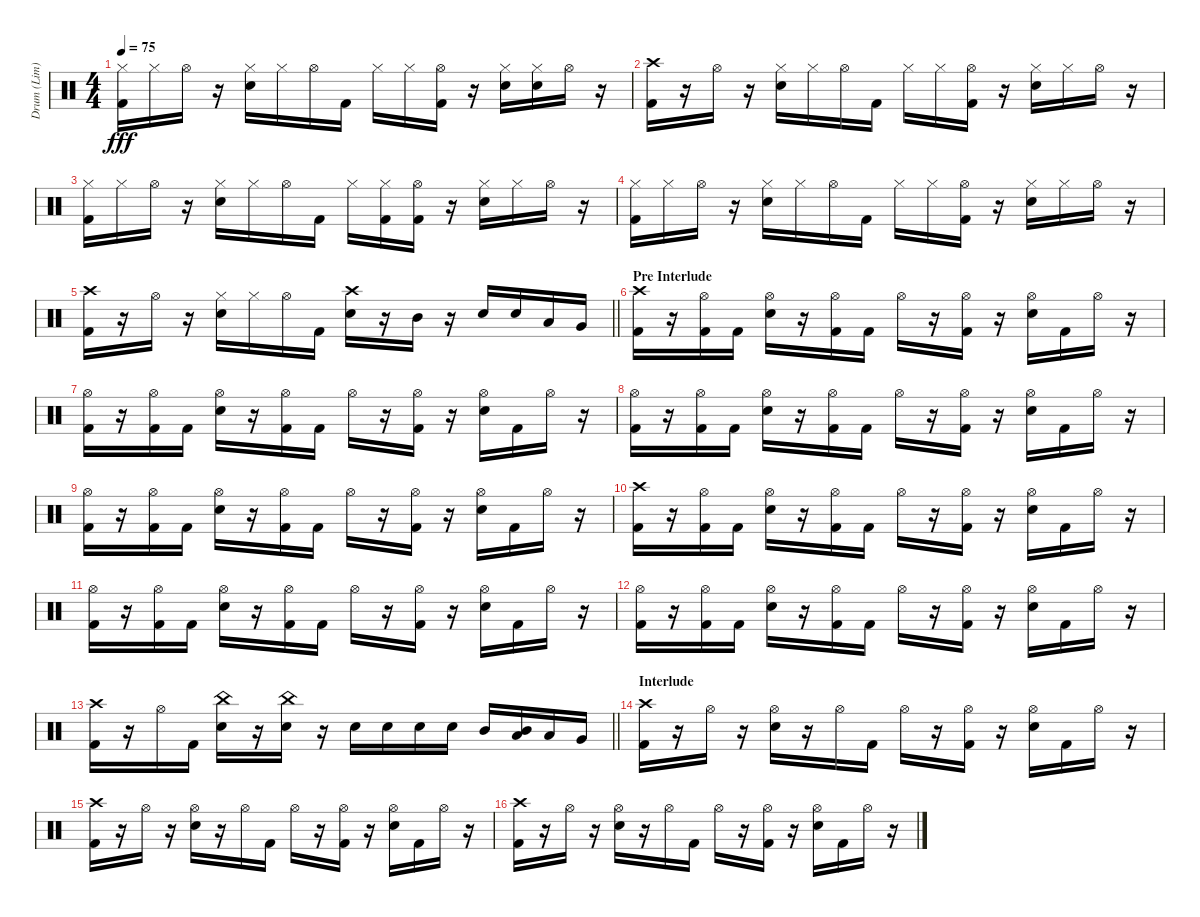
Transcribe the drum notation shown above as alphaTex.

\track ("Drum (Lim)" "Drum (Lim)") {instrument percussion}
\staff {score}
\articulation defaults
\ts (4 4)
\tempo 75
\clef neutral
\ks c
("Hi-Hat (closed)" "Kick (hit) 2").16{dy fff} "Hi-Hat (closed)".16 "Hi-Hat (open)".16 r.16 ("Hi-Hat (closed)" "Electric Snare (hit)").16 "Hi-Hat (closed)".16 "Hi-Hat (open)".16 "Kick (hit) 2".16 "Hi-Hat (closed)".16 "Hi-Hat (closed)".16 ("Hi-Hat (open)" "Kick (hit) 2").16 r.16 ("Electric Snare (hit)" "Hi-Hat (closed)").16 ("Electric Snare (hit)" "Hi-Hat (closed)").16 "Hi-Hat (open)".16 r.16 |
("Crash high (hit)" "Kick (hit) 2").16 r.16 "Hi-Hat (open)".16 r.16 ("Hi-Hat (closed)" "Electric Snare (hit)").16 "Hi-Hat (closed)".16 "Hi-Hat (open)".16 "Kick (hit) 2".16 "Hi-Hat (closed)".16 "Hi-Hat (closed)".16 ("Kick (hit) 2" "Hi-Hat (open)").16 r.16 ("Hi-Hat (closed)" "Electric Snare (hit)").16 "Hi-Hat (closed)".16 "Hi-Hat (open)".16 r.16 |
("Kick (hit) 2" "Hi-Hat (closed)").16 "Hi-Hat (closed)".16 "Hi-Hat (open)".16 r.16 ("Electric Snare (hit)" "Hi-Hat (closed)").16 "Hi-Hat (closed)".16 "Hi-Hat (open)".16 "Kick (hit) 2".16 "Hi-Hat (closed)".16 ("Kick (hit) 2" "Hi-Hat (closed)").16 ("Hi-Hat (open)" "Kick (hit) 2").16 r.16 ("Electric Snare (hit)" "Hi-Hat (closed)").16 "Hi-Hat (closed)".16 "Hi-Hat (open)".16 r.16 |
("Kick (hit) 2" "Hi-Hat (closed)").16 "Hi-Hat (closed)".16 "Hi-Hat (open)".16 r.16 ("Electric Snare (hit)" "Hi-Hat (closed)").16 "Hi-Hat (closed)".16 "Hi-Hat (open)".16 "Kick (hit) 2".16 "Hi-Hat (closed)".16 "Hi-Hat (closed)".16 ("Kick (hit) 2" "Hi-Hat (open)").16 r.16 ("Electric Snare (hit)" "Hi-Hat (closed)").16 "Hi-Hat (closed)".16 "Hi-Hat (open)".16 r.16 |
\barLineRight lightlight
("Kick (hit) 2" "Crash high (hit)").16 r.16 "Hi-Hat (open)".16 r.16 ("Electric Snare (hit)" "Hi-Hat (closed)").16 "Hi-Hat (closed)".16 "Hi-Hat (open)".16 "Kick (hit) 2".16 ("Crash high (hit)" "Electric Snare (hit)").16 r.16 "Mid Tom (hit)".16 r.16 "Electric Snare (hit)".16 "Electric Snare (hit)".16 "Low Tom (hit)".16 "Very Low Tom (hit)".16 |
\section ("" "Pre Interlude")
("Crash high (hit)" "Kick (hit) 2").16 r.16 ("Kick (hit) 2" "Hi-Hat (open)").16 "Kick (hit) 2".16 ("Hi-Hat (open)" "Electric Snare (hit)").16 r.16 ("Hi-Hat (open)" "Kick (hit) 2").16 "Kick (hit) 2".16 "Hi-Hat (open)".16 r.16 ("Kick (hit) 2" "Hi-Hat (open)").16 r.16 ("Electric Snare (hit)" "Hi-Hat (open)").16 "Kick (hit) 2".16 "Hi-Hat (open)".16 r.16 |
("Kick (hit) 2" "Hi-Hat (open)").16 r.16 ("Kick (hit) 2" "Hi-Hat (open)").16 "Kick (hit) 2".16 ("Electric Snare (hit)" "Hi-Hat (open)").16 r.16 ("Kick (hit) 2" "Hi-Hat (open)").16 "Kick (hit) 2".16 "Hi-Hat (open)".16 r.16 ("Hi-Hat (open)" "Kick (hit) 2").16 r.16 ("Electric Snare (hit)" "Hi-Hat (open)").16 "Kick (hit) 2".16 "Hi-Hat (open)".16 r.16 |
("Kick (hit) 2" "Hi-Hat (open)").16 r.16 ("Kick (hit) 2" "Hi-Hat (open)").16 "Kick (hit) 2".16 ("Electric Snare (hit)" "Hi-Hat (open)").16 r.16 ("Hi-Hat (open)" "Kick (hit) 2").16 "Kick (hit) 2".16 "Hi-Hat (open)".16 r.16 ("Hi-Hat (open)" "Kick (hit) 2").16 r.16 ("Hi-Hat (open)" "Electric Snare (hit)").16 "Kick (hit) 2".16 "Hi-Hat (open)".16 r.16 |
("Kick (hit) 2" "Hi-Hat (open)").16 r.16 ("Kick (hit) 2" "Hi-Hat (open)").16 "Kick (hit) 2".16 ("Electric Snare (hit)" "Hi-Hat (open)").16 r.16 ("Hi-Hat (open)" "Kick (hit) 2").16 "Kick (hit) 2".16 "Hi-Hat (open)".16 r.16 ("Hi-Hat (open)" "Kick (hit) 2").16 r.16 ("Hi-Hat (open)" "Electric Snare (hit)").16 "Kick (hit) 2".16 "Hi-Hat (open)".16 r.16 |
("Kick (hit) 2" "Crash high (hit)").16 r.16 ("Kick (hit) 2" "Hi-Hat (open)").16 "Kick (hit) 2".16 ("Hi-Hat (open)" "Electric Snare (hit)").16 r.16 ("Kick (hit) 2" "Hi-Hat (open)").16 "Kick (hit) 2".16 "Hi-Hat (open)".16 r.16 ("Kick (hit) 2" "Hi-Hat (open)").16 r.16 ("Electric Snare (hit)" "Hi-Hat (open)").16 "Kick (hit) 2".16 "Hi-Hat (open)".16 r.16 |
("Kick (hit) 2" "Hi-Hat (open)").16 r.16 ("Kick (hit) 2" "Hi-Hat (open)").16 "Kick (hit) 2".16 ("Hi-Hat (open)" "Electric Snare (hit)").16 r.16 ("Hi-Hat (open)" "Kick (hit) 2").16 "Kick (hit) 2".16 "Hi-Hat (open)".16 r.16 ("Kick (hit) 2" "Hi-Hat (open)").16 r.16 ("Hi-Hat (open)" "Electric Snare (hit)").16 "Kick (hit) 2".16 "Hi-Hat (open)".16 r.16 |
("Hi-Hat (open)" "Kick (hit) 2").16 r.16 ("Kick (hit) 2" "Hi-Hat (open)").16 "Kick (hit) 2".16 ("Electric Snare (hit)" "Hi-Hat (open)").16 r.16 ("Hi-Hat (open)" "Kick (hit) 2").16 "Kick (hit) 2".16 "Hi-Hat (open)".16 r.16 ("Kick (hit) 2" "Hi-Hat (open)").16 r.16 ("Electric Snare (hit)" "Hi-Hat (open)").16 "Kick (hit) 2".16 "Hi-Hat (open)".16 r.16 |
\barLineRight lightlight
("Kick (hit) 2" "Crash high (hit)").16 r.16 "Hi-Hat (open)".16 "Kick (hit) 2".16 ("China (hit)" "Electric Snare (hit)").16 r.16 ("China (hit)" "Electric Snare (hit)").16 r.16 "Electric Snare (hit)".16 "Electric Snare (hit)".16 "Electric Snare (hit)".16 "Electric Snare (hit)".16 "Mid Tom (hit)".16 ("Mid Tom (hit)" "Low Tom (hit)").16 "Low Tom (hit)".16 "Very Low Tom (hit)".16 |
\section ("" "Interlude")
("Crash high (hit)" "Kick (hit) 2").16 r.16 "Hi-Hat (open)".16 r.16 ("Hi-Hat (open)" "Electric Snare (hit)").16 r.16 "Hi-Hat (open)".16 "Kick (hit) 2".16 "Hi-Hat (open)".16 r.16 ("Kick (hit) 2" "Hi-Hat (open)").16 r.16 ("Electric Snare (hit)" "Hi-Hat (open)").16 "Kick (hit) 2".16 "Hi-Hat (open)".16 r.16 |
("Crash high (hit)" "Kick (hit) 2").16 r.16 "Hi-Hat (open)".16 r.16 ("Hi-Hat (open)" "Electric Snare (hit)").16 r.16 "Hi-Hat (open)".16 "Kick (hit) 2".16 "Hi-Hat (open)".16 r.16 ("Hi-Hat (open)" "Kick (hit) 2").16 r.16 ("Electric Snare (hit)" "Hi-Hat (open)").16 "Kick (hit) 2".16 "Hi-Hat (open)".16 r.16 |
("Kick (hit) 2" "Crash high (hit)").16 r.16 "Hi-Hat (open)".16 r.16 ("Hi-Hat (open)" "Electric Snare (hit)").16 r.16 "Hi-Hat (open)".16 "Kick (hit) 2".16 "Hi-Hat (open)".16 r.16 ("Kick (hit) 2" "Hi-Hat (open)").16 r.16 ("Electric Snare (hit)" "Hi-Hat (open)").16 "Kick (hit) 2".16 "Hi-Hat (open)".16 r.16
